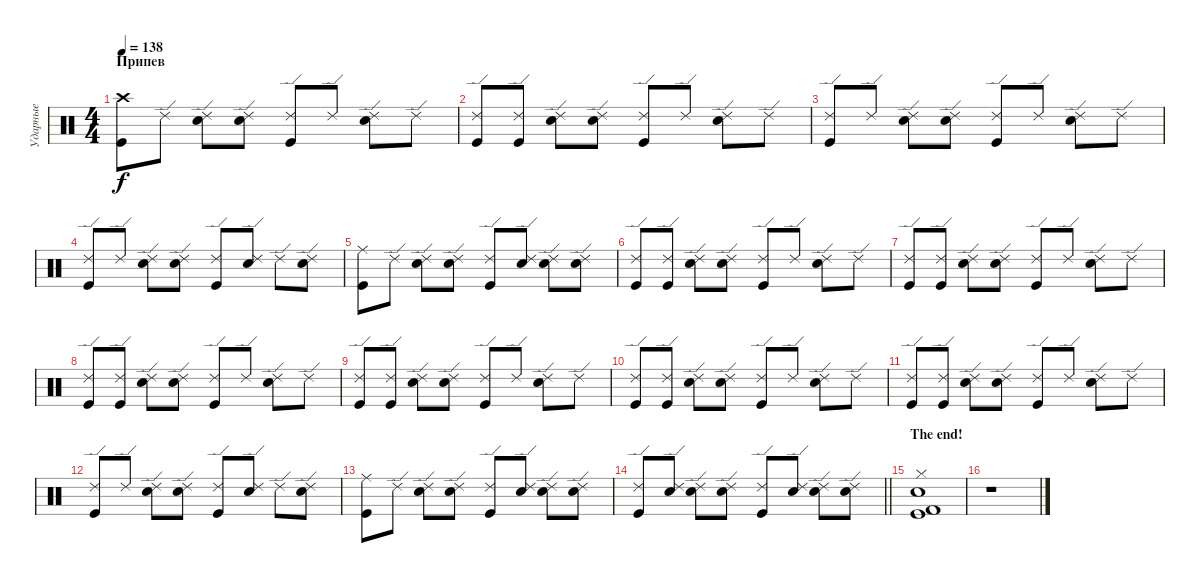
\track ("Ударные" "Ударные") {instrument percussion}
\staff {score}
\articulation defaults
\ts (4 4)
\section ("" "Припев")
\tempo 138
\clef neutral
\ks c
("Crash high (hit)" "Kick (hit)").8{dy f} "Ride (edge) 2".8 ("Ride (edge) 2" "Snare (hit) 2").8 ("Ride (edge) 2" "Snare (hit) 2").8 ("Ride (edge) 2" "Kick (hit)").8 "Ride (edge) 2".8 ("Ride (edge) 2" "Snare (hit) 2").8 "Ride (edge) 2".8 |
("Ride (edge) 2" "Kick (hit)").8 ("Ride (edge) 2" "Kick (hit)").8 ("Ride (edge) 2" "Snare (hit) 2").8 ("Ride (edge) 2" "Snare (hit) 2").8 ("Ride (edge) 2" "Kick (hit)").8 "Ride (edge) 2".8 ("Ride (edge) 2" "Snare (hit) 2").8 "Ride (edge) 2".8 |
("Ride (edge) 2" "Kick (hit)").8 "Ride (edge) 2".8 ("Ride (edge) 2" "Snare (hit) 2").8 ("Ride (edge) 2" "Snare (hit) 2").8 ("Ride (edge) 2" "Kick (hit)").8 "Ride (edge) 2".8 ("Ride (edge) 2" "Snare (hit) 2").8 "Ride (edge) 2".8 |
("Ride (edge) 2" "Kick (hit)").8 "Ride (edge) 2".8 ("Ride (edge) 2" "Snare (hit) 2").8 ("Ride (edge) 2" "Snare (hit) 2").8 ("Ride (edge) 2" "Kick (hit)").8 ("Ride (edge) 2" "Snare (hit) 2").8 "Ride (edge) 2".8 ("Ride (edge) 2" "Snare (hit) 2").8 |
("Ride (middle)" "Kick (hit)").8 "Ride (edge) 2".8 ("Ride (edge) 2" "Snare (hit) 2").8 ("Ride (edge) 2" "Snare (hit) 2").8 ("Ride (edge) 2" "Kick (hit)").8 ("Ride (edge) 2" "Snare (hit) 2").8 ("Ride (edge) 2" "Snare (hit) 2").8 ("Ride (edge) 2" "Snare (hit) 2").8 |
("Ride (edge) 2" "Kick (hit)").8 ("Ride (edge) 2" "Kick (hit)").8 ("Ride (edge) 2" "Snare (hit) 2").8 ("Ride (edge) 2" "Snare (hit) 2").8 ("Ride (edge) 2" "Kick (hit)").8 "Ride (edge) 2".8 ("Ride (edge) 2" "Snare (hit) 2").8 "Ride (edge) 2".8 |
("Ride (edge) 2" "Kick (hit)").8 ("Ride (edge) 2" "Kick (hit)").8 ("Ride (edge) 2" "Snare (hit) 2").8 ("Ride (edge) 2" "Snare (hit) 2").8 ("Ride (edge) 2" "Kick (hit)").8 "Ride (edge) 2".8 ("Ride (edge) 2" "Snare (hit) 2").8 "Ride (edge) 2".8 |
("Ride (edge) 2" "Kick (hit)").8 ("Ride (edge) 2" "Kick (hit)").8 ("Ride (edge) 2" "Snare (hit) 2").8 ("Ride (edge) 2" "Snare (hit) 2").8 ("Ride (edge) 2" "Kick (hit)").8 "Ride (edge) 2".8 ("Ride (edge) 2" "Snare (hit) 2").8 "Ride (edge) 2".8 |
("Ride (edge) 2" "Kick (hit)").8 ("Ride (edge) 2" "Kick (hit)").8 ("Ride (edge) 2" "Snare (hit) 2").8 ("Ride (edge) 2" "Snare (hit) 2").8 ("Ride (edge) 2" "Kick (hit)").8 "Ride (edge) 2".8 ("Ride (edge) 2" "Snare (hit) 2").8 "Ride (edge) 2".8 |
("Ride (edge) 2" "Kick (hit)").8 ("Ride (edge) 2" "Kick (hit)").8 ("Ride (edge) 2" "Snare (hit) 2").8 ("Ride (edge) 2" "Snare (hit) 2").8 ("Ride (edge) 2" "Kick (hit)").8 "Ride (edge) 2".8 ("Ride (edge) 2" "Snare (hit) 2").8 "Ride (edge) 2".8 |
("Ride (edge) 2" "Kick (hit)").8 ("Ride (edge) 2" "Kick (hit)").8 ("Ride (edge) 2" "Snare (hit) 2").8 ("Ride (edge) 2" "Snare (hit) 2").8 ("Ride (edge) 2" "Kick (hit)").8 "Ride (edge) 2".8 ("Ride (edge) 2" "Snare (hit) 2").8 "Ride (edge) 2".8 |
("Ride (edge) 2" "Kick (hit)").8 "Ride (edge) 2".8 ("Ride (edge) 2" "Snare (hit) 2").8 ("Ride (edge) 2" "Snare (hit) 2").8 ("Ride (edge) 2" "Kick (hit)").8 ("Ride (edge) 2" "Snare (hit) 2").8 "Ride (edge) 2".8 ("Ride (edge) 2" "Snare (hit) 2").8 |
("Ride (middle)" "Kick (hit)").8 "Ride (edge) 2".8 ("Ride (edge) 2" "Snare (hit) 2").8 ("Ride (edge) 2" "Snare (hit) 2").8 ("Ride (edge) 2" "Kick (hit)").8 ("Ride (edge) 2" "Snare (hit) 2").8 ("Ride (edge) 2" "Snare (hit) 2").8 ("Ride (edge) 2" "Snare (hit) 2").8 |
\barLineRight lightlight
("Ride (edge) 2" "Kick (hit)").8 ("Ride (edge) 2" "Snare (hit) 2").8 ("Ride (edge) 2" "Snare (hit) 2").8 ("Ride (edge) 2" "Snare (hit) 2").8 ("Ride (edge) 2" "Kick (hit)").8 ("Ride (edge) 2" "Snare (hit) 2").8 ("Ride (edge) 2" "Snare (hit) 2").8 ("Ride (edge) 2" "Snare (hit) 2").8 |
\section ("" "The end!")
("Hi-Hat (closed)" "Snare (hit) 2" "Kick (hit)" "Kick (hit) 2").1 |
r.1
